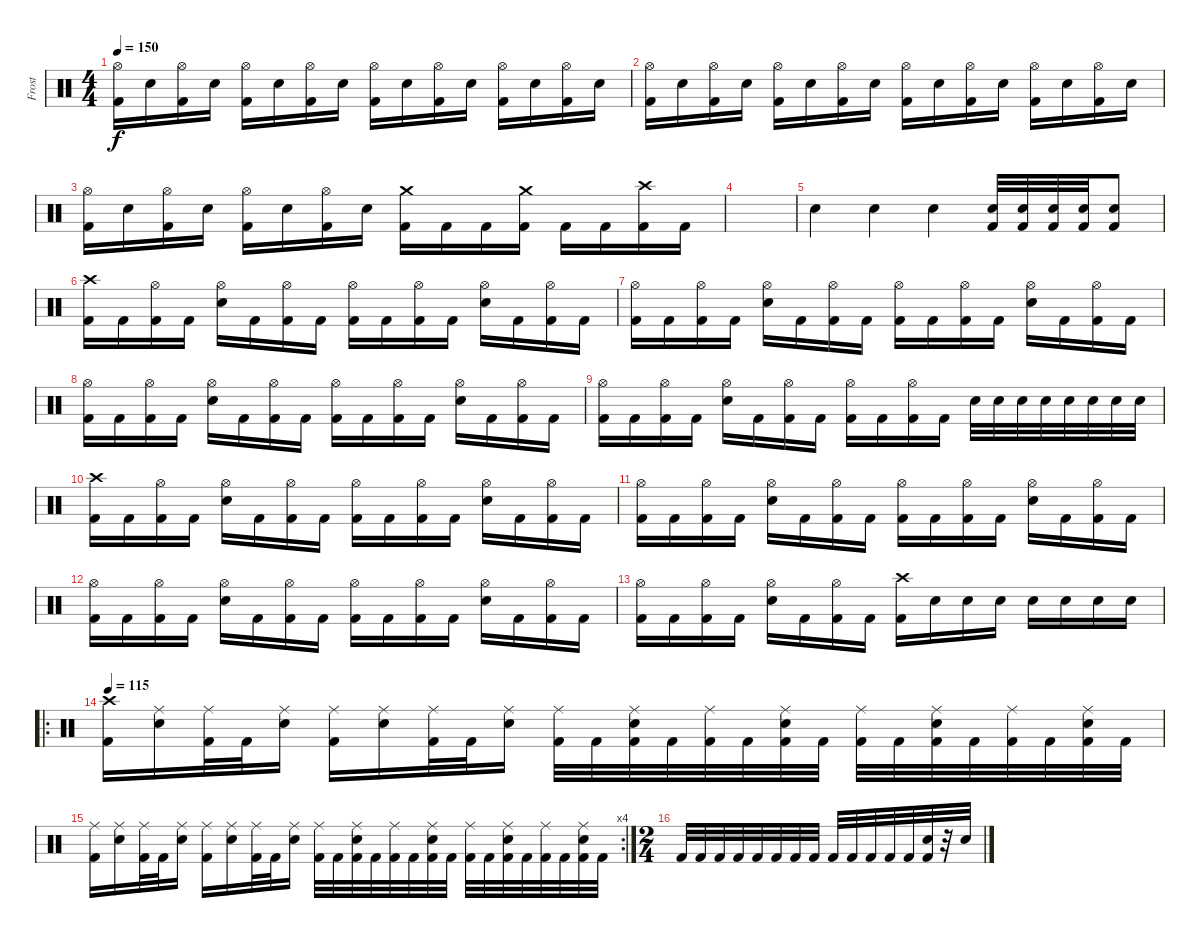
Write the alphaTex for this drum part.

\track ("Frost" "Frost") {instrument percussion}
\staff {score}
\articulation defaults
\ts (4 4)
\tempo 150
\clef neutral
\ks c
("Hi-Hat (open)" "Kick (hit) 2").16{dy f} "Snare (hit) 2".16 ("Hi-Hat (open)" "Kick (hit) 2").16 "Snare (hit) 2".16 ("Hi-Hat (open)" "Kick (hit) 2").16 "Snare (hit) 2".16 ("Hi-Hat (open)" "Kick (hit) 2").16 "Snare (hit) 2".16 ("Hi-Hat (open)" "Kick (hit) 2").16 "Snare (hit) 2".16 ("Hi-Hat (open)" "Kick (hit) 2").16 "Snare (hit) 2".16 ("Hi-Hat (open)" "Kick (hit) 2").16 "Snare (hit) 2".16 ("Hi-Hat (open)" "Kick (hit) 2").16 "Snare (hit) 2".16 |
("Hi-Hat (open)" "Kick (hit) 2").16 "Snare (hit) 2".16 ("Hi-Hat (open)" "Kick (hit) 2").16 "Snare (hit) 2".16 ("Hi-Hat (open)" "Kick (hit) 2").16 "Snare (hit) 2".16 ("Hi-Hat (open)" "Kick (hit) 2").16 "Snare (hit) 2".16 ("Hi-Hat (open)" "Kick (hit) 2").16 "Snare (hit) 2".16 ("Hi-Hat (open)" "Kick (hit) 2").16 "Snare (hit) 2".16 ("Hi-Hat (open)" "Kick (hit) 2").16 "Snare (hit) 2".16 ("Hi-Hat (open)" "Kick (hit) 2").16 "Snare (hit) 2".16 |
("Hi-Hat (open)" "Kick (hit) 2").16 "Snare (hit) 2".16 ("Hi-Hat (open)" "Kick (hit) 2").16 "Snare (hit) 2".16 ("Hi-Hat (open)" "Kick (hit) 2").16 "Snare (hit) 2".16 ("Hi-Hat (open)" "Kick (hit) 2").16 "Snare (hit) 2".16 ("Crash medium (hit)" "Kick (hit) 2").16 "Kick (hit) 2".16 "Kick (hit) 2".16 ("Crash medium (hit)" "Kick (hit) 2").16 "Kick (hit) 2".16 "Kick (hit) 2".16 ("Crash high (hit)" "Kick (hit) 2").16 "Kick (hit) 2".16 |
|
"Snare (hit)".4 "Snare (hit)".4 "Snare (hit)".4 ("Snare (hit) 2" "Kick (hit) 2").32 ("Snare (hit) 2" "Kick (hit) 2").32 ("Snare (hit) 2" "Kick (hit) 2").32 ("Snare (hit) 2" "Kick (hit) 2").32 ("Snare (hit) 2" "Kick (hit) 2").8 |
("Crash high (hit)" "Kick (hit) 2").16 "Kick (hit) 2".16 ("Hi-Hat (open)" "Kick (hit) 2").16 "Kick (hit) 2".16 ("Hi-Hat (open)" "Snare (hit) 2").16 "Kick (hit) 2".16 ("Hi-Hat (open)" "Kick (hit) 2").16 "Kick (hit) 2".16 ("Hi-Hat (open)" "Kick (hit) 2").16 "Kick (hit) 2".16 ("Hi-Hat (open)" "Kick (hit) 2").16 "Kick (hit) 2".16 ("Hi-Hat (open)" "Snare (hit) 2").16 "Kick (hit) 2".16 ("Hi-Hat (open)" "Kick (hit) 2").16 "Kick (hit) 2".16 |
("Hi-Hat (open)" "Kick (hit) 2").16 "Kick (hit) 2".16 ("Hi-Hat (open)" "Kick (hit) 2").16 "Kick (hit) 2".16 ("Hi-Hat (open)" "Snare (hit) 2").16 "Kick (hit) 2".16 ("Hi-Hat (open)" "Kick (hit) 2").16 "Kick (hit) 2".16 ("Hi-Hat (open)" "Kick (hit) 2").16 "Kick (hit) 2".16 ("Hi-Hat (open)" "Kick (hit) 2").16 "Kick (hit) 2".16 ("Hi-Hat (open)" "Snare (hit) 2").16 "Kick (hit) 2".16 ("Hi-Hat (open)" "Kick (hit) 2").16 "Kick (hit) 2".16 |
("Hi-Hat (open)" "Kick (hit) 2").16 "Kick (hit) 2".16 ("Hi-Hat (open)" "Kick (hit) 2").16 "Kick (hit) 2".16 ("Hi-Hat (open)" "Snare (hit) 2").16 "Kick (hit) 2".16 ("Hi-Hat (open)" "Kick (hit) 2").16 "Kick (hit) 2".16 ("Hi-Hat (open)" "Kick (hit) 2").16 "Kick (hit) 2".16 ("Hi-Hat (open)" "Kick (hit) 2").16 "Kick (hit) 2".16 ("Hi-Hat (open)" "Snare (hit) 2").16 "Kick (hit) 2".16 ("Hi-Hat (open)" "Kick (hit) 2").16 "Kick (hit) 2".16 |
("Hi-Hat (open)" "Kick (hit) 2").16 "Kick (hit) 2".16 ("Hi-Hat (open)" "Kick (hit) 2").16 "Kick (hit) 2".16 ("Hi-Hat (open)" "Snare (hit) 2").16 "Kick (hit) 2".16 ("Hi-Hat (open)" "Kick (hit) 2").16 "Kick (hit) 2".16 ("Hi-Hat (open)" "Kick (hit) 2").16 "Kick (hit) 2".16 ("Hi-Hat (open)" "Kick (hit) 2").16 "Kick (hit) 2".16 "Snare (hit) 2".32 "Snare (hit) 2".32 "Snare (hit) 2".32 "Snare (hit) 2".32 "Snare (hit) 2".32 "Snare (hit) 2".32 "Snare (hit) 2".32 "Snare (hit) 2".32 |
("Crash high (hit)" "Kick (hit) 2").16 "Kick (hit) 2".16 ("Hi-Hat (open)" "Kick (hit) 2").16 "Kick (hit) 2".16 ("Hi-Hat (open)" "Snare (hit) 2").16 "Kick (hit) 2".16 ("Hi-Hat (open)" "Kick (hit) 2").16 "Kick (hit) 2".16 ("Hi-Hat (open)" "Kick (hit) 2").16 "Kick (hit) 2".16 ("Hi-Hat (open)" "Kick (hit) 2").16 "Kick (hit) 2".16 ("Hi-Hat (open)" "Snare (hit) 2").16 "Kick (hit) 2".16 ("Hi-Hat (open)" "Kick (hit) 2").16 "Kick (hit) 2".16 |
("Hi-Hat (open)" "Kick (hit) 2").16 "Kick (hit) 2".16 ("Hi-Hat (open)" "Kick (hit) 2").16 "Kick (hit) 2".16 ("Hi-Hat (open)" "Snare (hit) 2").16 "Kick (hit) 2".16 ("Hi-Hat (open)" "Kick (hit) 2").16 "Kick (hit) 2".16 ("Hi-Hat (open)" "Kick (hit) 2").16 "Kick (hit) 2".16 ("Hi-Hat (open)" "Kick (hit) 2").16 "Kick (hit) 2".16 ("Hi-Hat (open)" "Snare (hit) 2").16 "Kick (hit) 2".16 ("Hi-Hat (open)" "Kick (hit) 2").16 "Kick (hit) 2".16 |
("Hi-Hat (open)" "Kick (hit) 2").16 "Kick (hit) 2".16 ("Hi-Hat (open)" "Kick (hit) 2").16 "Kick (hit) 2".16 ("Hi-Hat (open)" "Snare (hit) 2").16 "Kick (hit) 2".16 ("Hi-Hat (open)" "Kick (hit) 2").16 "Kick (hit) 2".16 ("Hi-Hat (open)" "Kick (hit) 2").16 "Kick (hit) 2".16 ("Hi-Hat (open)" "Kick (hit) 2").16 "Kick (hit) 2".16 ("Hi-Hat (open)" "Snare (hit) 2").16 "Kick (hit) 2".16 ("Hi-Hat (open)" "Kick (hit) 2").16 "Kick (hit) 2".16 |
("Hi-Hat (open)" "Kick (hit) 2").16 "Kick (hit) 2".16 ("Hi-Hat (open)" "Kick (hit) 2").16 "Kick (hit) 2".16 ("Hi-Hat (open)" "Snare (hit) 2").16 "Kick (hit) 2".16 ("Hi-Hat (open)" "Kick (hit) 2").16 "Kick (hit) 2".16 ("Crash high (hit)" "Kick (hit) 2").16 "Snare (hit) 2".16 "Snare (hit) 2".16 "Snare (hit) 2".16 "Snare (hit) 2".16 "Snare (hit) 2".16 "Snare (hit) 2".16 "Snare (hit) 2".16 |
\ro
\tempo 110
\tempo 115
("Crash high (hit)" "Kick (hit) 2").16 ("Ride (middle)" "Snare (hit) 2").16 ("Ride (middle)" "Kick (hit) 2").32 "Kick (hit) 2".32 ("Ride (middle)" "Snare (hit) 2").16 ("Ride (middle)" "Kick (hit) 2").16 ("Ride (middle)" "Snare (hit) 2").16 ("Ride (middle)" "Kick (hit) 2").32 "Kick (hit) 2".32 ("Ride (middle)" "Snare (hit) 2").16 ("Ride (middle)" "Kick (hit) 2").32 "Kick (hit) 2".32 ("Ride (middle)" "Snare (hit) 2" "Kick (hit) 2").32 "Kick (hit) 2".32 ("Ride (middle)" "Kick (hit) 2").32 "Kick (hit) 2".32 ("Ride (middle)" "Snare (hit) 2" "Kick (hit) 2").32 "Kick (hit) 2".32 ("Ride (middle)" "Kick (hit) 2").32 "Kick (hit) 2".32 ("Ride (middle)" "Snare (hit) 2" "Kick (hit) 2").32 "Kick (hit) 2".32 ("Ride (middle)" "Kick (hit) 2").32 "Kick (hit) 2".32 ("Ride (middle)" "Snare (hit) 2" "Kick (hit) 2").32 "Kick (hit) 2".32 |
\rc 4
("Ride (middle)" "Kick (hit) 2").16 ("Ride (middle)" "Snare (hit) 2").16 ("Ride (middle)" "Kick (hit) 2").32 "Kick (hit) 2".32 ("Ride (middle)" "Snare (hit) 2").16 ("Ride (middle)" "Kick (hit) 2").16 ("Ride (middle)" "Snare (hit) 2").16 ("Ride (middle)" "Kick (hit) 2").32 "Kick (hit) 2".32 ("Ride (middle)" "Snare (hit) 2").16 ("Ride (middle)" "Kick (hit) 2").32 "Kick (hit) 2".32 ("Ride (middle)" "Snare (hit) 2" "Kick (hit) 2").32 "Kick (hit) 2".32 ("Ride (middle)" "Kick (hit) 2").32 "Kick (hit) 2".32 ("Ride (middle)" "Snare (hit) 2" "Kick (hit) 2").32 "Kick (hit) 2".32 ("Ride (middle)" "Kick (hit) 2").32 "Kick (hit) 2".32 ("Ride (middle)" "Snare (hit) 2" "Kick (hit) 2").32 "Kick (hit) 2".32 ("Ride (middle)" "Kick (hit) 2").32 "Kick (hit) 2".32 ("Ride (middle)" "Snare (hit) 2" "Kick (hit) 2").32 "Kick (hit) 2".32 |
\ts (2 4)
"Kick (hit) 2".32 "Kick (hit) 2".32 "Kick (hit) 2".32 "Kick (hit) 2".32 "Kick (hit) 2".32 "Kick (hit) 2".32 "Kick (hit) 2".32 "Kick (hit) 2".32 "Kick (hit) 2".32 "Kick (hit) 2".32 "Kick (hit) 2".32 "Kick (hit) 2".32 "Kick (hit) 2".32 ("Snare (hit) 2" "Kick (hit) 2").32 r.32 "Snare (hit)".32
